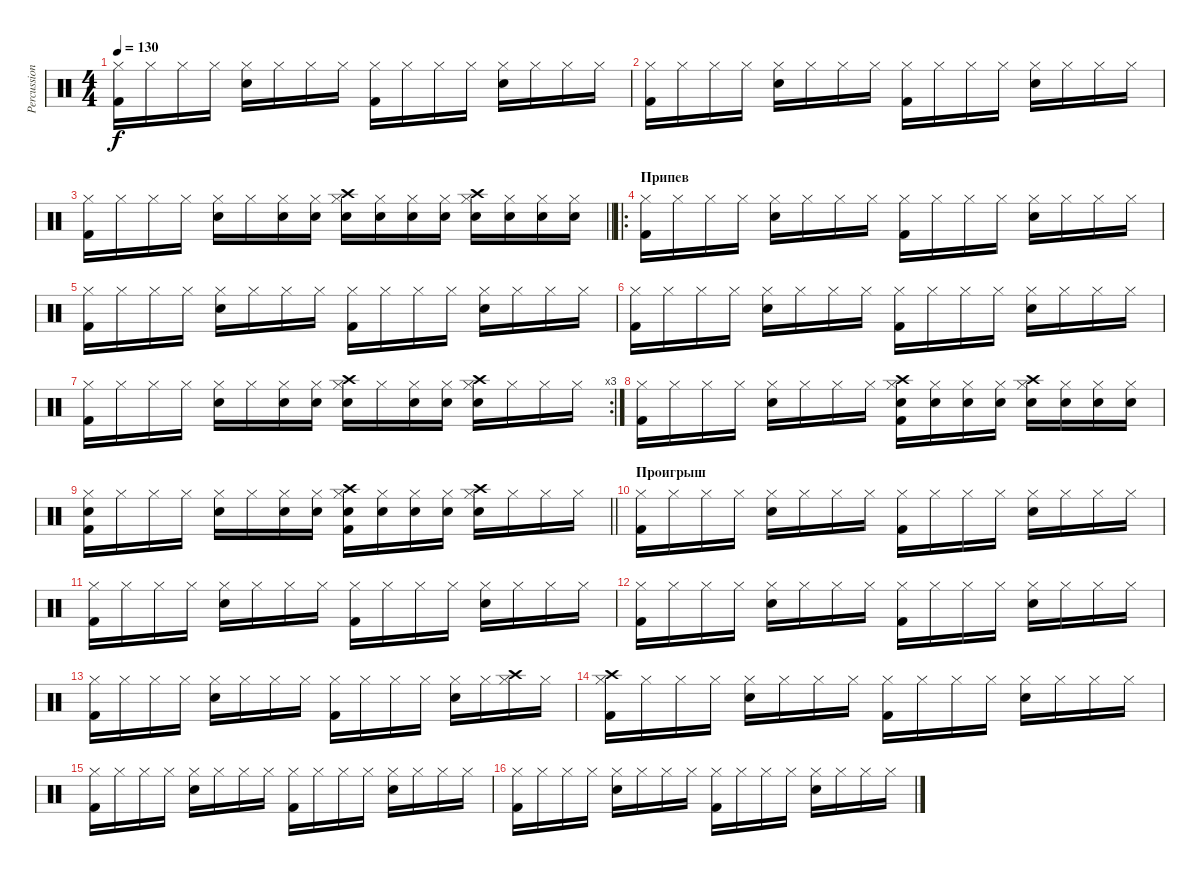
\track ("Percussion" "Percussion") {instrument percussion}
\staff {score}
\articulation defaults
\ts (4 4)
\tempo 130
\clef neutral
\ks c
("Kick (hit) 2" "Hi-Hat (closed)").16{dy f} "Hi-Hat (closed)".16 "Hi-Hat (closed)".16 "Hi-Hat (closed)".16 ("Snare (hit) 2" "Hi-Hat (closed)").16 "Hi-Hat (closed)".16 "Hi-Hat (closed)".16 "Hi-Hat (closed)".16 ("Hi-Hat (closed)" "Kick (hit) 2").16 "Hi-Hat (closed)".16 "Hi-Hat (closed)".16 "Hi-Hat (closed)".16 ("Snare (hit) 2" "Hi-Hat (closed)").16 "Hi-Hat (closed)".16 "Hi-Hat (closed)".16 "Hi-Hat (closed)".16 |
("Hi-Hat (closed)" "Kick (hit) 2").16 "Hi-Hat (closed)".16 "Hi-Hat (closed)".16 "Hi-Hat (closed)".16 ("Snare (hit) 2" "Hi-Hat (closed)").16 "Hi-Hat (closed)".16 "Hi-Hat (closed)".16 "Hi-Hat (closed)".16 ("Kick (hit) 2" "Hi-Hat (closed)").16 "Hi-Hat (closed)".16 "Hi-Hat (closed)".16 "Hi-Hat (closed)".16 ("Hi-Hat (closed)" "Snare (hit) 2").16 "Hi-Hat (closed)".16 "Hi-Hat (closed)".16 "Hi-Hat (closed)".16 |
\barLineRight lightlight
("Hi-Hat (closed)" "Kick (hit) 2").16 "Hi-Hat (closed)".16 "Hi-Hat (closed)".16 "Hi-Hat (closed)".16 ("Snare (hit) 2" "Hi-Hat (closed)").16 "Hi-Hat (closed)".16 ("Snare (hit) 2" "Hi-Hat (closed)").16 ("Hi-Hat (closed)" "Snare (hit) 2").16 ("Crash high (hit)" "Hi-Hat (closed)" "Snare (hit) 2").16 ("Hi-Hat (closed)" "Snare (hit) 2").16 ("Hi-Hat (closed)" "Snare (hit) 2").16 ("Snare (hit) 2" "Hi-Hat (closed)").16 ("Crash high (hit)" "Hi-Hat (closed)" "Snare (hit) 2").16 ("Hi-Hat (closed)" "Snare (hit) 2").16 ("Snare (hit) 2" "Hi-Hat (closed)").16 ("Snare (hit) 2" "Hi-Hat (closed)").16 |
\ro
\section ("" "Припев")
("Kick (hit) 2" "Hi-Hat (closed)").16 "Hi-Hat (closed)".16 "Hi-Hat (closed)".16 "Hi-Hat (closed)".16 ("Snare (hit) 2" "Hi-Hat (closed)").16 "Hi-Hat (closed)".16 "Hi-Hat (closed)".16 "Hi-Hat (closed)".16 ("Hi-Hat (closed)" "Kick (hit) 2").16 "Hi-Hat (closed)".16 "Hi-Hat (closed)".16 "Hi-Hat (closed)".16 ("Snare (hit) 2" "Hi-Hat (closed)").16 "Hi-Hat (closed)".16 "Hi-Hat (closed)".16 "Hi-Hat (closed)".16 |
("Kick (hit) 2" "Hi-Hat (closed)").16 "Hi-Hat (closed)".16 "Hi-Hat (closed)".16 "Hi-Hat (closed)".16 ("Snare (hit) 2" "Hi-Hat (closed)").16 "Hi-Hat (closed)".16 "Hi-Hat (closed)".16 "Hi-Hat (closed)".16 ("Kick (hit) 2" "Hi-Hat (closed)").16 "Hi-Hat (closed)".16 "Hi-Hat (closed)".16 "Hi-Hat (closed)".16 ("Hi-Hat (closed)" "Snare (hit) 2").16 "Hi-Hat (closed)".16 "Hi-Hat (closed)".16 "Hi-Hat (closed)".16 |
("Kick (hit) 2" "Hi-Hat (closed)").16 "Hi-Hat (closed)".16 "Hi-Hat (closed)".16 "Hi-Hat (closed)".16 ("Snare (hit) 2" "Hi-Hat (closed)").16 "Hi-Hat (closed)".16 "Hi-Hat (closed)".16 "Hi-Hat (closed)".16 ("Kick (hit) 2" "Hi-Hat (closed)").16 "Hi-Hat (closed)".16 "Hi-Hat (closed)".16 "Hi-Hat (closed)".16 ("Snare (hit) 2" "Hi-Hat (closed)").16 "Hi-Hat (closed)".16 "Hi-Hat (closed)".16 "Hi-Hat (closed)".16 |
\rc 3
("Kick (hit) 2" "Hi-Hat (closed)").16 "Hi-Hat (closed)".16 "Hi-Hat (closed)".16 "Hi-Hat (closed)".16 ("Hi-Hat (closed)" "Snare (hit) 2").16 "Hi-Hat (closed)".16 ("Hi-Hat (closed)" "Snare (hit) 2").16 ("Hi-Hat (closed)" "Snare (hit) 2").16 ("Hi-Hat (closed)" "Snare (hit) 2" "Crash high (hit)").16 "Hi-Hat (closed)".16 ("Snare (hit) 2" "Hi-Hat (closed)").16 ("Snare (hit) 2" "Hi-Hat (closed)").16 ("Crash high (hit)" "Snare (hit) 2" "Hi-Hat (closed)").16 "Hi-Hat (closed)".16 "Hi-Hat (closed)".16 "Hi-Hat (closed)".16 |
("Hi-Hat (closed)" "Kick (hit) 2").16 "Hi-Hat (closed)".16 "Hi-Hat (closed)".16 "Hi-Hat (closed)".16 ("Snare (hit) 2" "Hi-Hat (closed)").16 "Hi-Hat (closed)".16 "Hi-Hat (closed)".16 "Hi-Hat (closed)".16 ("Crash high (hit)" "Hi-Hat (closed)" "Kick (hit) 2" "Snare (hit) 2").16 ("Snare (hit) 2" "Hi-Hat (closed)").16 ("Hi-Hat (closed)" "Snare (hit) 2").16 ("Snare (hit) 2" "Hi-Hat (closed)").16 ("Crash high (hit)" "Snare (hit) 2" "Hi-Hat (closed)").16 ("Snare (hit) 2" "Hi-Hat (closed)").16 ("Hi-Hat (closed)" "Snare (hit) 2").16 ("Hi-Hat (closed)" "Snare (hit) 2").16 |
\barLineRight lightlight
("Kick (hit) 2" "Hi-Hat (closed)" "Snare (hit) 2").16 "Hi-Hat (closed)".16 "Hi-Hat (closed)".16 "Hi-Hat (closed)".16 ("Hi-Hat (closed)" "Snare (hit) 2").16 "Hi-Hat (closed)".16 ("Snare (hit) 2" "Hi-Hat (closed)").16 ("Snare (hit) 2" "Hi-Hat (closed)").16 ("Hi-Hat (closed)" "Snare (hit) 2" "Kick (hit) 2" "Crash high (hit)").16 ("Hi-Hat (closed)" "Snare (hit) 2").16 ("Snare (hit) 2" "Hi-Hat (closed)").16 ("Hi-Hat (closed)" "Snare (hit) 2").16 ("Snare (hit) 2" "Crash high (hit)" "Hi-Hat (closed)").16 "Hi-Hat (closed)".16 "Hi-Hat (closed)".16 "Hi-Hat (closed)".16 |
\section ("" "Проигрыш")
("Hi-Hat (closed)" "Kick (hit) 2").16 "Hi-Hat (closed)".16 "Hi-Hat (closed)".16 "Hi-Hat (closed)".16 ("Snare (hit) 2" "Hi-Hat (closed)").16 "Hi-Hat (closed)".16 "Hi-Hat (closed)".16 "Hi-Hat (closed)".16 ("Hi-Hat (closed)" "Kick (hit) 2").16 "Hi-Hat (closed)".16 "Hi-Hat (closed)".16 "Hi-Hat (closed)".16 ("Snare (hit) 2" "Hi-Hat (closed)").16 "Hi-Hat (closed)".16 "Hi-Hat (closed)".16 "Hi-Hat (closed)".16 |
("Kick (hit) 2" "Hi-Hat (closed)").16 "Hi-Hat (closed)".16 "Hi-Hat (closed)".16 "Hi-Hat (closed)".16 ("Hi-Hat (closed)" "Snare (hit) 2").16 "Hi-Hat (closed)".16 "Hi-Hat (closed)".16 "Hi-Hat (closed)".16 ("Kick (hit) 2" "Hi-Hat (closed)").16 "Hi-Hat (closed)".16 "Hi-Hat (closed)".16 "Hi-Hat (closed)".16 ("Hi-Hat (closed)" "Snare (hit) 2").16 "Hi-Hat (closed)".16 "Hi-Hat (closed)".16 "Hi-Hat (closed)".16 |
("Kick (hit) 2" "Hi-Hat (closed)").16 "Hi-Hat (closed)".16 "Hi-Hat (closed)".16 "Hi-Hat (closed)".16 ("Snare (hit) 2" "Hi-Hat (closed)").16 "Hi-Hat (closed)".16 "Hi-Hat (closed)".16 "Hi-Hat (closed)".16 ("Hi-Hat (closed)" "Kick (hit) 2").16 "Hi-Hat (closed)".16 "Hi-Hat (closed)".16 "Hi-Hat (closed)".16 ("Snare (hit) 2" "Hi-Hat (closed)").16 "Hi-Hat (closed)".16 "Hi-Hat (closed)".16 "Hi-Hat (closed)".16 |
("Kick (hit) 2" "Hi-Hat (closed)").16 "Hi-Hat (closed)".16 "Hi-Hat (closed)".16 "Hi-Hat (closed)".16 ("Snare (hit) 2" "Hi-Hat (closed)").16 "Hi-Hat (closed)".16 "Hi-Hat (closed)".16 "Hi-Hat (closed)".16 ("Hi-Hat (closed)" "Kick (hit) 2").16 "Hi-Hat (closed)".16 "Hi-Hat (closed)".16 "Hi-Hat (closed)".16 ("Snare (hit) 2" "Hi-Hat (closed)").16 "Hi-Hat (closed)".16 ("Crash high (hit)" "Hi-Hat (closed)").16 "Hi-Hat (closed)".16 |
("Crash high (hit)" "Hi-Hat (closed)" "Kick (hit) 2").16 "Hi-Hat (closed)".16 "Hi-Hat (closed)".16 "Hi-Hat (closed)".16 ("Snare (hit) 2" "Hi-Hat (closed)").16 "Hi-Hat (closed)".16 "Hi-Hat (closed)".16 "Hi-Hat (closed)".16 ("Hi-Hat (closed)" "Kick (hit) 2").16 "Hi-Hat (closed)".16 "Hi-Hat (closed)".16 "Hi-Hat (closed)".16 ("Snare (hit) 2" "Hi-Hat (closed)").16 "Hi-Hat (closed)".16 "Hi-Hat (closed)".16 "Hi-Hat (closed)".16 |
("Kick (hit) 2" "Hi-Hat (closed)").16 "Hi-Hat (closed)".16 "Hi-Hat (closed)".16 "Hi-Hat (closed)".16 ("Hi-Hat (closed)" "Snare (hit) 2").16 "Hi-Hat (closed)".16 "Hi-Hat (closed)".16 "Hi-Hat (closed)".16 ("Kick (hit) 2" "Hi-Hat (closed)").16 "Hi-Hat (closed)".16 "Hi-Hat (closed)".16 "Hi-Hat (closed)".16 ("Hi-Hat (closed)" "Snare (hit) 2").16 "Hi-Hat (closed)".16 "Hi-Hat (closed)".16 "Hi-Hat (closed)".16 |
("Kick (hit) 2" "Hi-Hat (closed)").16 "Hi-Hat (closed)".16 "Hi-Hat (closed)".16 "Hi-Hat (closed)".16 ("Snare (hit) 2" "Hi-Hat (closed)").16 "Hi-Hat (closed)".16 "Hi-Hat (closed)".16 "Hi-Hat (closed)".16 ("Hi-Hat (closed)" "Kick (hit) 2").16 "Hi-Hat (closed)".16 "Hi-Hat (closed)".16 "Hi-Hat (closed)".16 ("Snare (hit) 2" "Hi-Hat (closed)").16 "Hi-Hat (closed)".16 "Hi-Hat (closed)".16 "Hi-Hat (closed)".16
